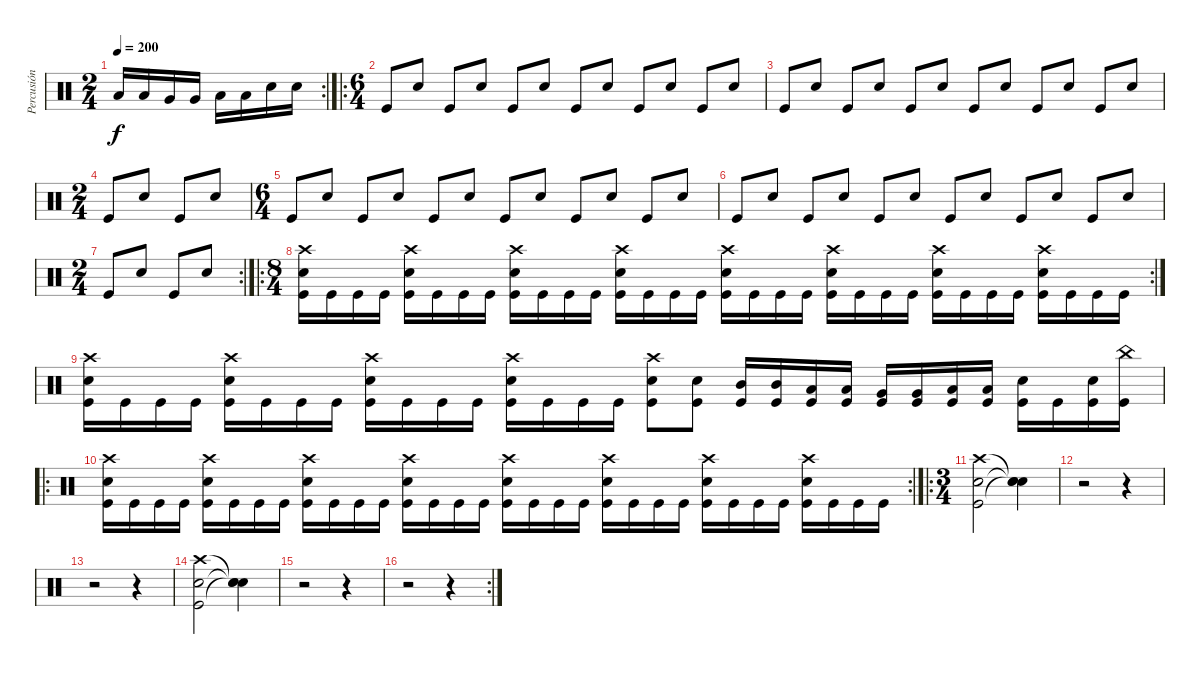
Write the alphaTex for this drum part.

\track ("Percusión" "Percusión") {instrument percussion}
\staff {score}
\articulation defaults
\rc 2
\ts (2 4)
\tempo 200
\clef neutral
\ks c "Low Tom (hit)".16{dy f} "Low Tom (hit)".16 "Very Low Tom (hit)".16 "Very Low Tom (hit)".16 "Low Floor Tom (hit)".16 "Low Floor Tom (hit)".16 "Snare (hit) 2".16 "Snare (hit) 2".16
|
\ro
\ts (6 4)
"Kick (hit)".8 "Snare (hit) 2".8 "Kick (hit)".8 "Snare (hit) 2".8 "Kick (hit)".8 "Snare (hit) 2".8 "Kick (hit)".8 "Snare (hit) 2".8 "Kick (hit)".8 "Snare (hit) 2".8 "Kick (hit)".8 "Snare (hit) 2".8 |
"Kick (hit)".8 "Snare (hit) 2".8 "Kick (hit)".8 "Snare (hit) 2".8 "Kick (hit)".8 "Snare (hit) 2".8 "Kick (hit)".8 "Snare (hit) 2".8 "Kick (hit)".8 "Snare (hit) 2".8 "Kick (hit)".8 "Snare (hit) 2".8 |
\ts (2 4)
"Kick (hit)".8 "Snare (hit) 2".8 "Kick (hit)".8 "Snare (hit) 2".8 |
\ts (6 4)
"Kick (hit)".8 "Snare (hit) 2".8 "Kick (hit)".8 "Snare (hit) 2".8 "Kick (hit)".8 "Snare (hit) 2".8 "Kick (hit)".8 "Snare (hit) 2".8 "Kick (hit)".8 "Snare (hit) 2".8 "Kick (hit)".8 "Snare (hit) 2".8 |
"Kick (hit)".8 "Snare (hit) 2".8 "Kick (hit)".8 "Snare (hit) 2".8 "Kick (hit)".8 "Snare (hit) 2".8 "Kick (hit)".8 "Snare (hit) 2".8 "Kick (hit)".8 "Snare (hit) 2".8 "Kick (hit)".8 "Snare (hit) 2".8 |
\rc 2
\ts (2 4)
"Kick (hit)".8 "Snare (hit) 2".8 "Kick (hit)".8 "Snare (hit) 2".8 |
\ro
\rc 2
\ts (8 4)
("Crash high (hit)" "Snare (hit) 2" "Kick (hit)").16 "Kick (hit)".16 "Kick (hit)".16 "Kick (hit)".16 ("Crash high (hit)" "Snare (hit) 2" "Kick (hit)").16 "Kick (hit)".16 "Kick (hit)".16 "Kick (hit)".16 ("Crash high (hit)" "Snare (hit) 2" "Kick (hit)").16 "Kick (hit)".16 "Kick (hit)".16 "Kick (hit)".16 ("Crash high (hit)" "Snare (hit) 2" "Kick (hit)").16 "Kick (hit)".16 "Kick (hit)".16 "Kick (hit)".16 ("Crash high (hit)" "Snare (hit) 2" "Kick (hit)").16 "Kick (hit)".16 "Kick (hit)".16 "Kick (hit)".16 ("Crash high (hit)" "Snare (hit) 2" "Kick (hit)").16 "Kick (hit)".16 "Kick (hit)".16 "Kick (hit)".16 ("Crash high (hit)" "Snare (hit) 2" "Kick (hit)").16 "Kick (hit)".16 "Kick (hit)".16 "Kick (hit)".16 ("Crash high (hit)" "Snare (hit) 2" "Kick (hit)").16 "Kick (hit)".16 "Kick (hit)".16 "Kick (hit)".16 |
("Crash high (hit)" "Snare (hit) 2" "Kick (hit)").16 "Kick (hit)".16 "Kick (hit)".16 "Kick (hit)".16 ("Crash high (hit)" "Snare (hit) 2" "Kick (hit)").16 "Kick (hit)".16 "Kick (hit)".16 "Kick (hit)".16 ("Crash high (hit)" "Snare (hit) 2" "Kick (hit)").16 "Kick (hit)".16 "Kick (hit)".16 "Kick (hit)".16 ("Crash high (hit)" "Snare (hit) 2" "Kick (hit)").16 "Kick (hit)".16 "Kick (hit)".16 "Kick (hit)".16 ("Crash high (hit)" "Snare (hit) 2" "Kick (hit)").8 ("Snare (hit) 2" "Kick (hit)").8 ("Mid Tom (hit)" "Kick (hit)").16 ("Mid Tom (hit)" "Kick (hit)").16 ("Low Tom (hit)" "Kick (hit)").16 ("Low Tom (hit)" "Kick (hit)").16 ("Very Low Tom (hit)" "Kick (hit)").16 ("Very Low Tom (hit)" "Kick (hit)").16 ("Low Floor Tom (hit)" "Kick (hit)").16 ("Low Floor Tom (hit)" "Kick (hit)").16 ("Snare (hit) 2" "Kick (hit)").16 "Kick (hit)".16 ("Snare (hit) 2" "Kick (hit)").16 ("China (hit)" "Kick (hit)").16 |
\ro
\rc 2
("Crash high (hit)" "Snare (hit) 2" "Kick (hit)").16 "Kick (hit)".16 "Kick (hit)".16 "Kick (hit)".16 ("Crash high (hit)" "Snare (hit) 2" "Kick (hit)").16 "Kick (hit)".16 "Kick (hit)".16 "Kick (hit)".16 ("Crash high (hit)" "Snare (hit) 2" "Kick (hit)").16 "Kick (hit)".16 "Kick (hit)".16 "Kick (hit)".16 ("Crash high (hit)" "Snare (hit) 2" "Kick (hit)").16 "Kick (hit)".16 "Kick (hit)".16 "Kick (hit)".16 ("Crash high (hit)" "Snare (hit) 2" "Kick (hit)").16 "Kick (hit)".16 "Kick (hit)".16 "Kick (hit)".16 ("Crash high (hit)" "Snare (hit) 2" "Kick (hit)").16 "Kick (hit)".16 "Kick (hit)".16 "Kick (hit)".16 ("Crash high (hit)" "Snare (hit) 2" "Kick (hit)").16 "Kick (hit)".16 "Kick (hit)".16 "Kick (hit)".16 ("Crash high (hit)" "Snare (hit) 2" "Kick (hit)").16 "Kick (hit)".16 "Kick (hit)".16 "Kick (hit)".16 |
\ro
\ts (3 4)
("Crash high (hit)" "Snare (hit) 2" "Kick (hit)").2 ("Snare (hit)"{t} "Snare (hit)"{t} "Snare (hit)"{t}).4 |
r.2 r.4 |
r.2 r.4 |
("Crash high (hit)" "Snare (hit) 2" "Kick (hit)").2 ("Snare (hit)"{t} "Snare (hit)"{t} "Snare (hit)"{t}).4 |
r.2 r.4 |
\rc 2
r.2 r.4
